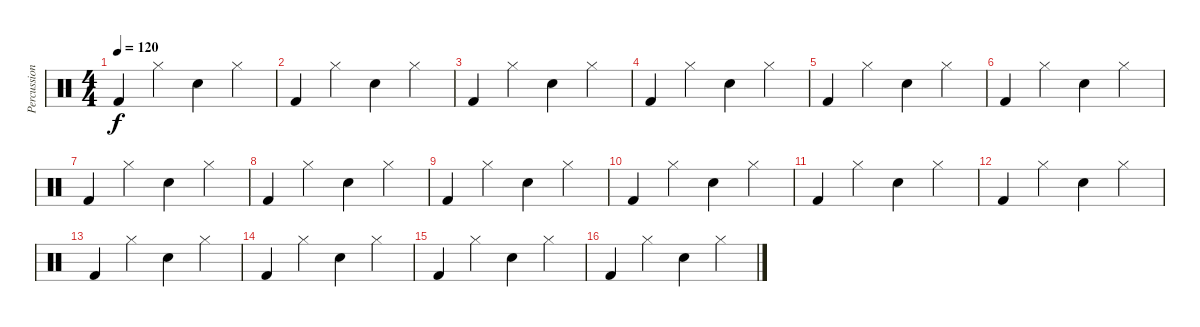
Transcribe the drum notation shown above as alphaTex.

\track ("Percussions" "Percussion") {instrument percussion}
\staff {score}
\articulation defaults
\ts (4 4)
\tempo 120
\clef neutral
\ks c "Kick (hit) 2".4{dy f} "Hi-Hat (closed)".4 "Electric Snare (hit)".4 "Hi-Hat (closed)".4
|
"Kick (hit) 2".4 "Hi-Hat (closed)".4 "Electric Snare (hit)".4 "Hi-Hat (closed)".4 |
"Kick (hit) 2".4 "Hi-Hat (closed)".4 "Electric Snare (hit)".4 "Hi-Hat (closed)".4 |
"Kick (hit) 2".4 "Hi-Hat (closed)".4 "Electric Snare (hit)".4 "Hi-Hat (closed)".4 |
"Kick (hit) 2".4 "Hi-Hat (closed)".4 "Electric Snare (hit)".4 "Hi-Hat (closed)".4 |
"Kick (hit) 2".4 "Hi-Hat (closed)".4 "Electric Snare (hit)".4 "Hi-Hat (closed)".4 |
"Kick (hit) 2".4 "Hi-Hat (closed)".4 "Electric Snare (hit)".4 "Hi-Hat (closed)".4 |
"Kick (hit) 2".4 "Hi-Hat (closed)".4 "Electric Snare (hit)".4 "Hi-Hat (closed)".4 |
"Kick (hit) 2".4 "Hi-Hat (closed)".4 "Electric Snare (hit)".4 "Hi-Hat (closed)".4 |
"Kick (hit) 2".4 "Hi-Hat (closed)".4 "Electric Snare (hit)".4 "Hi-Hat (closed)".4 |
"Kick (hit) 2".4 "Hi-Hat (closed)".4 "Electric Snare (hit)".4 "Hi-Hat (closed)".4 |
"Kick (hit) 2".4 "Hi-Hat (closed)".4 "Electric Snare (hit)".4 "Hi-Hat (closed)".4 |
"Kick (hit) 2".4 "Hi-Hat (closed)".4 "Electric Snare (hit)".4 "Hi-Hat (closed)".4 |
"Kick (hit) 2".4 "Hi-Hat (closed)".4 "Electric Snare (hit)".4 "Hi-Hat (closed)".4 |
"Kick (hit) 2".4 "Hi-Hat (closed)".4 "Electric Snare (hit)".4 "Hi-Hat (closed)".4 |
"Kick (hit) 2".4 "Hi-Hat (closed)".4 "Electric Snare (hit)".4 "Hi-Hat (closed)".4
